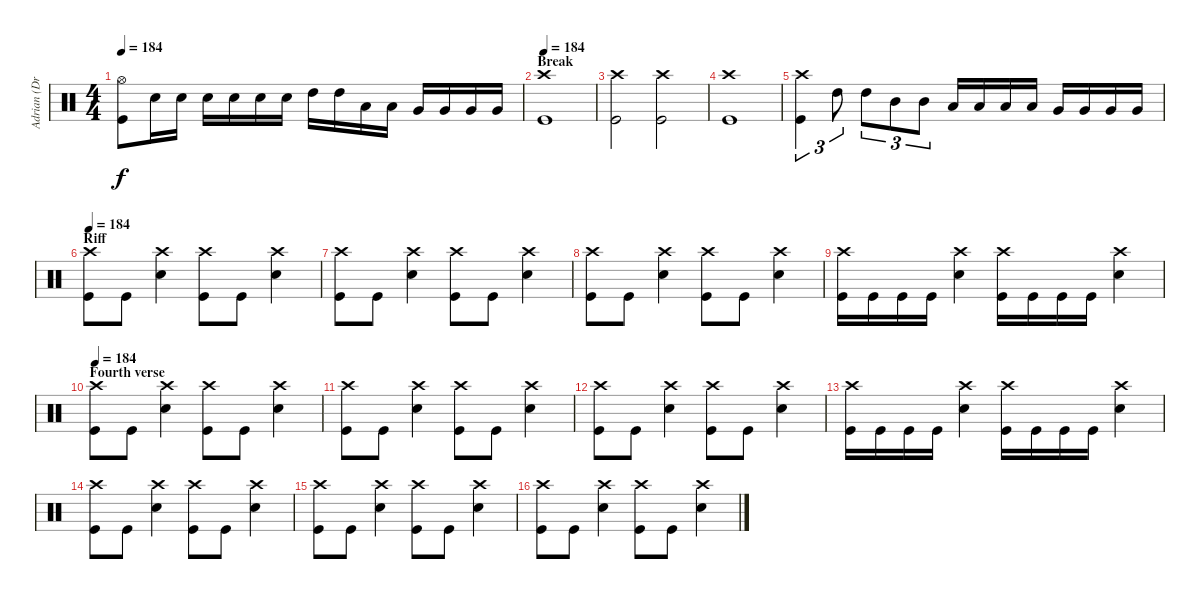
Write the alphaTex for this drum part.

\track ("Adrian (Drums)" "Adrian (Dr") {instrument percussion}
\staff {score}
\articulation defaults
\ts (4 4)
\tempo 184
\clef neutral
\ks c
("Hi-Hat (open)" "Kick (hit)").8{dy f} "Electric Snare (hit)".16 "Electric Snare (hit)".16 "Electric Snare (hit)".16 "Electric Snare (hit)".16 "Electric Snare (hit)".16 "Electric Snare (hit)".16 "High Tom (hit)".16 "High Tom (hit)".16 "Low Tom (hit)".16 "Low Tom (hit)".16 "Very Low Tom (hit)".16 "Very Low Tom (hit)".16 "Very Low Tom (hit)".16 "Very Low Tom (hit)".16 |
\section ("" "Break")
\tempo 184
("Crash high (hit)" "Kick (hit)").1 |
("Crash high (hit)" "Kick (hit)").2 ("Crash high (hit)" "Kick (hit)").2 |
("Crash high (hit)" "Kick (hit)").1 |
("Crash high (hit)" "Kick (hit)").4{tu (3 2)} "High Tom (hit)".8{tu (3 2)} "High Tom (hit)".8{tu (3 2)} "Mid Tom (hit)".8{tu (3 2)} "Mid Tom (hit)".8{tu (3 2)} "Low Tom (hit)".16 "Low Tom (hit)".16 "Low Tom (hit)".16 "Low Tom (hit)".16 "Very Low Tom (hit)".16 "Very Low Tom (hit)".16 "Very Low Tom (hit)".16 "Very Low Tom (hit)".16 |
\section ("" "Riff")
\tempo 184
("Crash high (hit)" "Kick (hit)").8 "Kick (hit)".8 ("Crash high (hit)" "Electric Snare (hit)").4 ("Crash high (hit)" "Kick (hit)").8 "Kick (hit)".8 ("Crash high (hit)" "Electric Snare (hit)").4 |
("Crash high (hit)" "Kick (hit)").8 "Kick (hit)".8 ("Crash high (hit)" "Electric Snare (hit)").4 ("Crash high (hit)" "Kick (hit)").8 "Kick (hit)".8 ("Crash high (hit)" "Electric Snare (hit)").4 |
("Crash high (hit)" "Kick (hit)").8 "Kick (hit)".8 ("Crash high (hit)" "Electric Snare (hit)").4 ("Crash high (hit)" "Kick (hit)").8 "Kick (hit)".8 ("Crash high (hit)" "Electric Snare (hit)").4 |
("Crash high (hit)" "Kick (hit)").16 "Kick (hit)".16 "Kick (hit)".16 "Kick (hit)".16 ("Crash high (hit)" "Electric Snare (hit)").4 ("Crash high (hit)" "Kick (hit)").16 "Kick (hit)".16 "Kick (hit)".16 "Kick (hit)".16 ("Crash high (hit)" "Electric Snare (hit)").4 |
\section ("" "Fourth verse")
\tempo 184
("Crash high (hit)" "Kick (hit)").8 "Kick (hit)".8 ("Crash high (hit)" "Electric Snare (hit)").4 ("Crash high (hit)" "Kick (hit)").8 "Kick (hit)".8 ("Crash high (hit)" "Electric Snare (hit)").4 |
("Crash high (hit)" "Kick (hit)").8 "Kick (hit)".8 ("Crash high (hit)" "Electric Snare (hit)").4 ("Crash high (hit)" "Kick (hit)").8 "Kick (hit)".8 ("Crash high (hit)" "Electric Snare (hit)").4 |
("Crash high (hit)" "Kick (hit)").8 "Kick (hit)".8 ("Crash high (hit)" "Electric Snare (hit)").4 ("Crash high (hit)" "Kick (hit)").8 "Kick (hit)".8 ("Crash high (hit)" "Electric Snare (hit)").4 |
("Crash high (hit)" "Kick (hit)").16 "Kick (hit)".16 "Kick (hit)".16 "Kick (hit)".16 ("Crash high (hit)" "Electric Snare (hit)").4 ("Crash high (hit)" "Kick (hit)").16 "Kick (hit)".16 "Kick (hit)".16 "Kick (hit)".16 ("Crash high (hit)" "Electric Snare (hit)").4 |
("Crash high (hit)" "Kick (hit)").8 "Kick (hit)".8 ("Crash high (hit)" "Electric Snare (hit)").4 ("Crash high (hit)" "Kick (hit)").8 "Kick (hit)".8 ("Crash high (hit)" "Electric Snare (hit)").4 |
("Crash high (hit)" "Kick (hit)").8 "Kick (hit)".8 ("Crash high (hit)" "Electric Snare (hit)").4 ("Crash high (hit)" "Kick (hit)").8 "Kick (hit)".8 ("Crash high (hit)" "Electric Snare (hit)").4 |
("Crash high (hit)" "Kick (hit)").8 "Kick (hit)".8 ("Crash high (hit)" "Electric Snare (hit)").4 ("Crash high (hit)" "Kick (hit)").8 "Kick (hit)".8 ("Crash high (hit)" "Electric Snare (hit)").4
